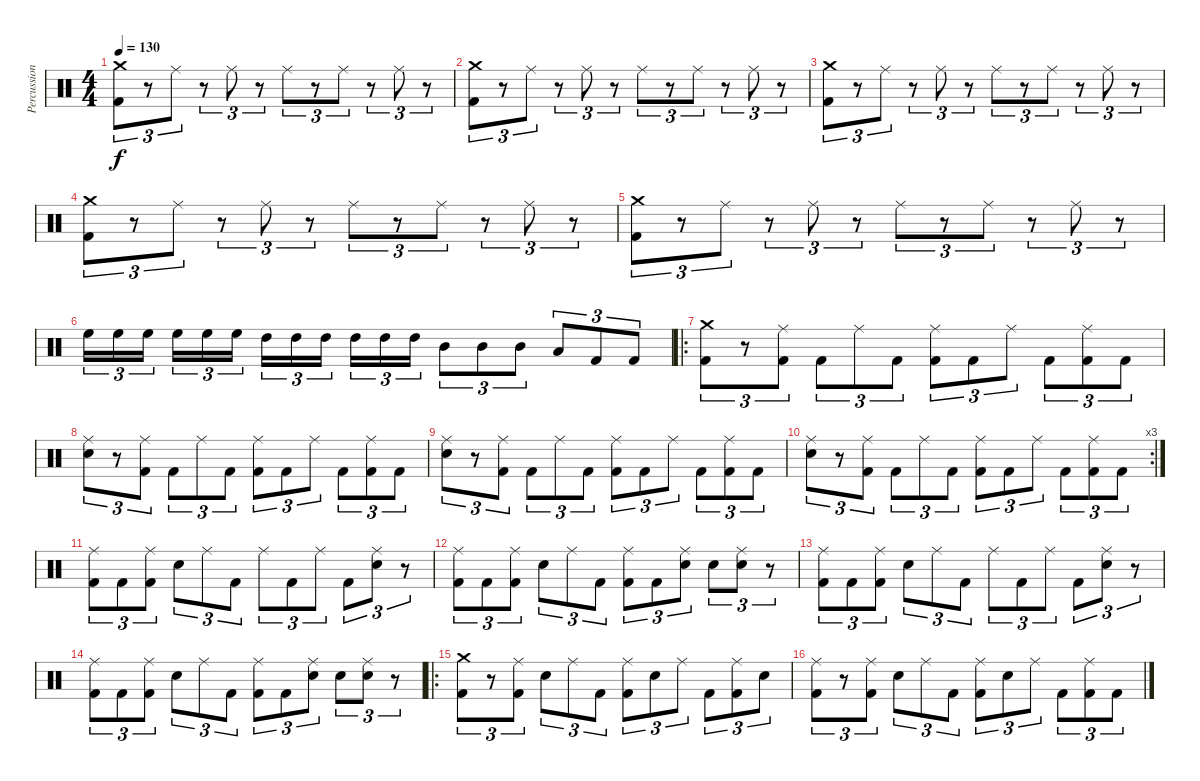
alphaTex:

\track ("Percussion" "Percussion") {instrument percussion}
\staff {score}
\articulation defaults
\ts (4 4)
\tempo 130
\clef neutral
\ks c
("Crash medium (hit)" "Kick (hit) 2").8{tu (3 2) dy f} r.8{tu (3 2)} "Ride (middle)".8{tu (3 2)} r.8{tu (3 2)} "Ride (middle)".8{tu (3 2)} r.8{tu (3 2)} "Ride (middle)".8{tu (3 2)} r.8{tu (3 2)} "Ride (middle)".8{tu (3 2)} r.8{tu (3 2)} "Ride (middle)".8{tu (3 2)} r.8{tu (3 2)} |
("Crash medium (hit)" "Kick (hit) 2").8{tu (3 2)} r.8{tu (3 2)} "Ride (middle)".8{tu (3 2)} r.8{tu (3 2)} "Ride (middle)".8{tu (3 2)} r.8{tu (3 2)} "Ride (middle)".8{tu (3 2)} r.8{tu (3 2)} "Ride (middle)".8{tu (3 2)} r.8{tu (3 2)} "Ride (middle)".8{tu (3 2)} r.8{tu (3 2)} |
("Crash medium (hit)" "Kick (hit) 2").8{tu (3 2)} r.8{tu (3 2)} "Ride (middle)".8{tu (3 2)} r.8{tu (3 2)} "Ride (middle)".8{tu (3 2)} r.8{tu (3 2)} "Ride (middle)".8{tu (3 2)} r.8{tu (3 2)} "Ride (middle)".8{tu (3 2)} r.8{tu (3 2)} "Ride (middle)".8{tu (3 2)} r.8{tu (3 2)} |
("Crash medium (hit)" "Kick (hit) 2").8{tu (3 2)} r.8{tu (3 2)} "Ride (middle)".8{tu (3 2)} r.8{tu (3 2)} "Ride (middle)".8{tu (3 2)} r.8{tu (3 2)} "Ride (middle)".8{tu (3 2)} r.8{tu (3 2)} "Ride (middle)".8{tu (3 2)} r.8{tu (3 2)} "Ride (middle)".8{tu (3 2)} r.8{tu (3 2)} |
("Crash medium (hit)" "Kick (hit) 2").8{tu (3 2)} r.8{tu (3 2)} "Ride (middle)".8{tu (3 2)} r.8{tu (3 2)} "Ride (middle)".8{tu (3 2)} r.8{tu (3 2)} "Ride (middle)".8{tu (3 2)} r.8{tu (3 2)} "Ride (middle)".8{tu (3 2)} r.8{tu (3 2)} "Ride (middle)".8{tu (3 2)} r.8{tu (3 2)} |
"High Floor Tom (hit)".16{tu (3 2)} "High Floor Tom (hit)".16{tu (3 2)} "High Floor Tom (hit)".16{tu (3 2)} "High Floor Tom (hit)".16{tu (3 2)} "High Floor Tom (hit)".16{tu (3 2)} "High Floor Tom (hit)".16{tu (3 2)} "High Tom (hit)".16{tu (3 2)} "High Tom (hit)".16{tu (3 2)} "High Tom (hit)".16{tu (3 2)} "High Tom (hit)".16{tu (3 2)} "High Tom (hit)".16{tu (3 2)} "High Tom (hit)".16{tu (3 2)} "Mid Tom (hit)".8{tu (3 2)} "Mid Tom (hit)".8{tu (3 2)} "Mid Tom (hit)".8{tu (3 2)} "Low Tom (hit)".8{tu (3 2)} "Kick (hit) 2".8{tu (3 2)} "Kick (hit) 2".8{tu (3 2)} |
\ro
("Crash medium (hit)" "Kick (hit) 2").8{tu (3 2)} r.8{tu (3 2)} ("Ride (middle)" "Kick (hit) 2").8{tu (3 2)} "Kick (hit) 2".8{tu (3 2)} "Ride (middle)".8{tu (3 2)} "Kick (hit) 2".8{tu (3 2)} ("Ride (middle)" "Kick (hit) 2").8{tu (3 2)} "Kick (hit) 2".8{tu (3 2)} "Ride (middle)".8{tu (3 2)} "Kick (hit) 2".8{tu (3 2)} ("Ride (middle)" "Kick (hit) 2").8{tu (3 2)} "Kick (hit) 2".8{tu (3 2)} |
("Ride (middle)" "Electric Snare (hit)").8{tu (3 2)} r.8{tu (3 2)} ("Ride (middle)" "Kick (hit) 2").8{tu (3 2)} "Kick (hit) 2".8{tu (3 2)} "Ride (middle)".8{tu (3 2)} "Kick (hit) 2".8{tu (3 2)} ("Ride (middle)" "Kick (hit) 2").8{tu (3 2)} "Kick (hit) 2".8{tu (3 2)} "Ride (middle)".8{tu (3 2)} "Kick (hit) 2".8{tu (3 2)} ("Ride (middle)" "Kick (hit) 2").8{tu (3 2)} "Kick (hit) 2".8{tu (3 2)} |
("Ride (middle)" "Electric Snare (hit)").8{tu (3 2)} r.8{tu (3 2)} ("Ride (middle)" "Kick (hit) 2").8{tu (3 2)} "Kick (hit) 2".8{tu (3 2)} "Ride (middle)".8{tu (3 2)} "Kick (hit) 2".8{tu (3 2)} ("Ride (middle)" "Kick (hit) 2").8{tu (3 2)} "Kick (hit) 2".8{tu (3 2)} "Ride (middle)".8{tu (3 2)} "Kick (hit) 2".8{tu (3 2)} ("Ride (middle)" "Kick (hit) 2").8{tu (3 2)} "Kick (hit) 2".8{tu (3 2)} |
\rc 3
("Ride (middle)" "Electric Snare (hit)").8{tu (3 2)} r.8{tu (3 2)} ("Ride (middle)" "Kick (hit) 2").8{tu (3 2)} "Kick (hit) 2".8{tu (3 2)} "Ride (middle)".8{tu (3 2)} "Kick (hit) 2".8{tu (3 2)} ("Ride (middle)" "Kick (hit) 2").8{tu (3 2)} "Kick (hit) 2".8{tu (3 2)} "Ride (middle)".8{tu (3 2)} "Kick (hit) 2".8{tu (3 2)} ("Ride (middle)" "Kick (hit) 2").8{tu (3 2)} "Kick (hit) 2".8{tu (3 2)} |
("Ride (middle)" "Kick (hit) 2").8{tu (3 2)} "Kick (hit) 2".8{tu (3 2)} ("Ride (middle)" "Kick (hit) 2").8{tu (3 2)} "Electric Snare (hit)".8{tu (3 2)} "Ride (middle)".8{tu (3 2)} "Kick (hit) 2".8{tu (3 2)} "Ride (middle)".8{tu (3 2)} "Kick (hit) 2".8{tu (3 2)} "Ride (middle)".8{tu (3 2)} "Kick (hit) 2".8{tu (3 2)} ("Ride (middle)" "Electric Snare (hit)").8{tu (3 2)} r.8{tu (3 2)} |
("Ride (middle)" "Kick (hit) 2").8{tu (3 2)} "Kick (hit) 2".8{tu (3 2)} ("Ride (middle)" "Kick (hit) 2").8{tu (3 2)} "Electric Snare (hit)".8{tu (3 2)} "Ride (middle)".8{tu (3 2)} "Kick (hit) 2".8{tu (3 2)} ("Ride (middle)" "Kick (hit) 2").8{tu (3 2)} "Kick (hit) 2".8{tu (3 2)} ("Ride (middle)" "Electric Snare (hit)").8{tu (3 2)} "Electric Snare (hit)".8{tu (3 2)} ("Ride (middle)" "Electric Snare (hit)").8{tu (3 2)} r.8{tu (3 2)} |
("Ride (middle)" "Kick (hit) 2").8{tu (3 2)} "Kick (hit) 2".8{tu (3 2)} ("Ride (middle)" "Kick (hit) 2").8{tu (3 2)} "Electric Snare (hit)".8{tu (3 2)} "Ride (middle)".8{tu (3 2)} "Kick (hit) 2".8{tu (3 2)} "Ride (middle)".8{tu (3 2)} "Kick (hit) 2".8{tu (3 2)} "Ride (middle)".8{tu (3 2)} "Kick (hit) 2".8{tu (3 2)} ("Ride (middle)" "Electric Snare (hit)").8{tu (3 2)} r.8{tu (3 2)} |
("Ride (middle)" "Kick (hit) 2").8{tu (3 2)} "Kick (hit) 2".8{tu (3 2)} ("Ride (middle)" "Kick (hit) 2").8{tu (3 2)} "Electric Snare (hit)".8{tu (3 2)} "Ride (middle)".8{tu (3 2)} "Kick (hit) 2".8{tu (3 2)} ("Ride (middle)" "Kick (hit) 2").8{tu (3 2)} "Kick (hit) 2".8{tu (3 2)} ("Ride (middle)" "Electric Snare (hit)").8{tu (3 2)} "Electric Snare (hit)".8{tu (3 2)} ("Ride (middle)" "Electric Snare (hit)").8{tu (3 2)} r.8{tu (3 2)} |
\ro
("Crash medium (hit)" "Kick (hit) 2").8{tu (3 2)} r.8{tu (3 2)} ("Ride (middle)" "Kick (hit) 2").8{tu (3 2)} "Electric Snare (hit)".8{tu (3 2)} "Ride (middle)".8{tu (3 2)} "Kick (hit) 2".8{tu (3 2)} ("Ride (middle)" "Kick (hit) 2").8{tu (3 2)} "Electric Snare (hit)".8{tu (3 2)} "Ride (middle)".8{tu (3 2)} "Kick (hit) 2".8{tu (3 2)} ("Ride (middle)" "Kick (hit) 2").8{tu (3 2)} "Electric Snare (hit)".8{tu (3 2)} |
("Ride (middle)" "Kick (hit) 2").8{tu (3 2)} r.8{tu (3 2)} ("Ride (middle)" "Kick (hit) 2").8{tu (3 2)} "Electric Snare (hit)".8{tu (3 2)} "Ride (middle)".8{tu (3 2)} "Kick (hit) 2".8{tu (3 2)} ("Ride (middle)" "Kick (hit) 2").8{tu (3 2)} "Electric Snare (hit)".8{tu (3 2)} "Ride (middle)".8{tu (3 2)} "Kick (hit) 2".8{tu (3 2)} ("Ride (middle)" "Kick (hit) 2").8{tu (3 2)} "Kick (hit) 2".8{tu (3 2)}
